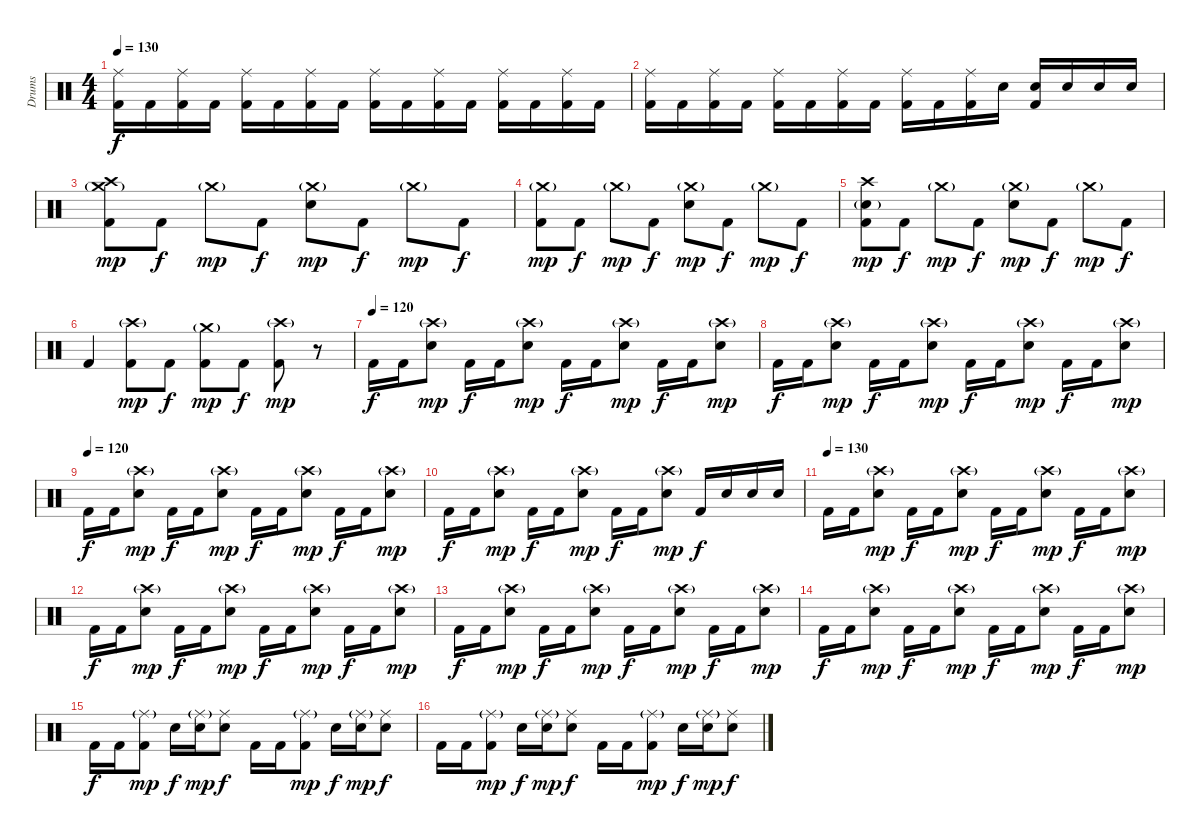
\track ("Drums" "Drums") {instrument percussion}
\staff {score}
\articulation defaults
\ts (4 4)
\tempo 130
\clef neutral
\ks c
("Ride (middle)" "Kick (hit) 2").16{dy f} "Kick (hit) 2".16 ("Ride (middle)" "Kick (hit) 2").16 "Kick (hit) 2".16 ("Ride (middle)" "Kick (hit) 2").16 "Kick (hit) 2".16 ("Ride (middle)" "Kick (hit) 2").16 "Kick (hit) 2".16 ("Ride (middle)" "Kick (hit) 2").16 "Kick (hit) 2".16 ("Ride (middle)" "Kick (hit) 2").16 "Kick (hit) 2".16 ("Ride (middle)" "Kick (hit) 2").16 "Kick (hit) 2".16 ("Ride (middle)" "Kick (hit) 2").16 "Kick (hit) 2".16 |
("Ride (middle)" "Kick (hit) 2").16 "Kick (hit) 2".16 ("Ride (middle)" "Kick (hit) 2").16 "Kick (hit) 2".16 ("Ride (middle)" "Kick (hit) 2").16 "Kick (hit) 2".16 ("Ride (middle)" "Kick (hit) 2").16 "Kick (hit) 2".16 ("Ride (middle)" "Kick (hit) 2").16 "Kick (hit) 2".16 ("Ride (middle)" "Kick (hit) 2").16 "Electric Snare (hit)".16 ("Kick (hit) 2" "Electric Snare (hit)").16 "Electric Snare (hit)".16 "Electric Snare (hit)".16 "Electric Snare (hit)".16 |
("Crash high (hit)" "Crash medium (hit)"{g} "Kick (hit) 2").8{dy mp} "Kick (hit) 2".8{dy f} "Crash medium (hit)"{g}.8{dy mp} "Kick (hit) 2".8{dy f} ("Crash medium (hit)"{g} "Electric Snare (hit)").8{dy mp} "Kick (hit) 2".8{dy f} "Crash medium (hit)"{g}.8{dy mp} "Kick (hit) 2".8{dy f} |
("Crash medium (hit)"{g} "Kick (hit) 2").8{dy mp} "Kick (hit) 2".8{dy f} "Crash medium (hit)"{g}.8{dy mp} "Kick (hit) 2".8{dy f} ("Crash medium (hit)"{g} "Electric Snare (hit)").8{dy mp} "Kick (hit) 2".8{dy f} "Crash medium (hit)"{g}.8{dy mp} "Kick (hit) 2".8{dy f} |
("Crash high (hit)" "Electric Snare (hit)"{g} "Kick (hit) 2").8{dy mp} "Kick (hit) 2".8{dy f} "Crash medium (hit)"{g}.8{dy mp} "Kick (hit) 2".8{dy f} ("Crash medium (hit)"{g} "Electric Snare (hit)").8{dy mp} "Kick (hit) 2".8{dy f} "Crash medium (hit)"{g}.8{dy mp} "Kick (hit) 2".8{dy f} |
"Kick (hit) 2".4 ("Crash high (hit)"{g} "Kick (hit) 2").8{dy mp} "Kick (hit) 2".8{dy f} ("Crash medium (hit)"{g} "Kick (hit) 2").8{dy mp} "Kick (hit) 2".8{dy f} ("Crash high (hit)"{g} "Kick (hit) 2").8{dy mp} r.8 |
\tempo (120)
"Kick (hit) 2".16{dy f} "Kick (hit) 2".16 ("Crash high (hit)"{g} "Electric Snare (hit)").8{dy mp} "Kick (hit) 2".16{dy f} "Kick (hit) 2".16 ("Crash high (hit)"{g} "Electric Snare (hit)").8{dy mp} "Kick (hit) 2".16{dy f} "Kick (hit) 2".16 ("Crash high (hit)"{g} "Electric Snare (hit)").8{dy mp} "Kick (hit) 2".16{dy f} "Kick (hit) 2".16 ("Crash high (hit)"{g} "Electric Snare (hit)").8{dy mp} |
"Kick (hit) 2".16{dy f} "Kick (hit) 2".16 ("Crash high (hit)"{g} "Electric Snare (hit)").8{dy mp} "Kick (hit) 2".16{dy f} "Kick (hit) 2".16 ("Crash high (hit)"{g} "Electric Snare (hit)").8{dy mp} "Kick (hit) 2".16{dy f} "Kick (hit) 2".16 ("Crash high (hit)"{g} "Electric Snare (hit)").8{dy mp} "Kick (hit) 2".16{dy f} "Kick (hit) 2".16 ("Crash high (hit)"{g} "Electric Snare (hit)").8{dy mp} |
\tempo (120)
"Kick (hit) 2".16{dy f} "Kick (hit) 2".16 ("Crash high (hit)"{g} "Electric Snare (hit)").8{dy mp} "Kick (hit) 2".16{dy f} "Kick (hit) 2".16 ("Crash high (hit)"{g} "Electric Snare (hit)").8{dy mp} "Kick (hit) 2".16{dy f} "Kick (hit) 2".16 ("Crash high (hit)"{g} "Electric Snare (hit)").8{dy mp} "Kick (hit) 2".16{dy f} "Kick (hit) 2".16 ("Crash high (hit)"{g} "Electric Snare (hit)").8{dy mp} |
"Kick (hit) 2".16{dy f} "Kick (hit) 2".16 ("Crash high (hit)"{g} "Electric Snare (hit)").8{dy mp} "Kick (hit) 2".16{dy f} "Kick (hit) 2".16 ("Crash high (hit)"{g} "Electric Snare (hit)").8{dy mp} "Kick (hit) 2".16{dy f} "Kick (hit) 2".16 ("Crash high (hit)"{g} "Electric Snare (hit)").8{dy mp} "Kick (hit) 2".16{dy f} "Electric Snare (hit)".16 "Electric Snare (hit)".16 "Electric Snare (hit)".16 |
\tempo (130)
"Kick (hit) 2".16 "Kick (hit) 2".16 ("Crash high (hit)"{g} "Electric Snare (hit)").8{dy mp} "Kick (hit) 2".16{dy f} "Kick (hit) 2".16 ("Crash high (hit)"{g} "Electric Snare (hit)").8{dy mp} "Kick (hit) 2".16{dy f} "Kick (hit) 2".16 ("Crash high (hit)"{g} "Electric Snare (hit)").8{dy mp} "Kick (hit) 2".16{dy f} "Kick (hit) 2".16 ("Crash high (hit)"{g} "Electric Snare (hit)").8{dy mp} |
"Kick (hit) 2".16{dy f} "Kick (hit) 2".16 ("Crash high (hit)"{g} "Electric Snare (hit)").8{dy mp} "Kick (hit) 2".16{dy f} "Kick (hit) 2".16 ("Crash high (hit)"{g} "Electric Snare (hit)").8{dy mp} "Kick (hit) 2".16{dy f} "Kick (hit) 2".16 ("Crash high (hit)"{g} "Electric Snare (hit)").8{dy mp} "Kick (hit) 2".16{dy f} "Kick (hit) 2".16 ("Crash high (hit)"{g} "Electric Snare (hit)").8{dy mp} |
"Kick (hit) 2".16{dy f} "Kick (hit) 2".16 ("Crash high (hit)"{g} "Electric Snare (hit)").8{dy mp} "Kick (hit) 2".16{dy f} "Kick (hit) 2".16 ("Crash high (hit)"{g} "Electric Snare (hit)").8{dy mp} "Kick (hit) 2".16{dy f} "Kick (hit) 2".16 ("Crash high (hit)"{g} "Electric Snare (hit)").8{dy mp} "Kick (hit) 2".16{dy f} "Kick (hit) 2".16 ("Crash high (hit)"{g} "Electric Snare (hit)").8{dy mp} |
"Kick (hit) 2".16{dy f} "Kick (hit) 2".16 ("Crash high (hit)"{g} "Electric Snare (hit)").8{dy mp} "Kick (hit) 2".16{dy f} "Kick (hit) 2".16 ("Crash high (hit)"{g} "Electric Snare (hit)").8{dy mp} "Kick (hit) 2".16{dy f} "Kick (hit) 2".16 ("Crash high (hit)"{g} "Electric Snare (hit)").8{dy mp} "Kick (hit) 2".16{dy f} "Kick (hit) 2".16 ("Crash high (hit)"{g} "Electric Snare (hit)").8{dy mp} |
"Kick (hit) 2".16{dy f} "Kick (hit) 2".16 ("Ride (middle)"{g} "Kick (hit) 2").8{dy mp} "Snare (hit) 2".16{dy f} ("Ride (middle)"{g} "Snare (hit) 2").16{dy mp} ("Ride (middle)" "Snare (hit) 2").8{dy f} "Kick (hit) 2".16 "Kick (hit) 2".16 ("Ride (middle)"{g} "Kick (hit) 2").8{dy mp} "Snare (hit) 2".16{dy f} ("Ride (middle)"{g} "Snare (hit) 2").16{dy mp} ("Ride (middle)" "Snare (hit) 2").8{dy f} |
"Kick (hit) 2".16 "Kick (hit) 2".16 ("Ride (middle)"{g} "Kick (hit) 2").8{dy mp} "Snare (hit) 2".16{dy f} ("Ride (middle)"{g} "Snare (hit) 2").16{dy mp} ("Ride (middle)" "Snare (hit) 2").8{dy f} "Kick (hit) 2".16 "Kick (hit) 2".16 ("Ride (middle)"{g} "Kick (hit) 2").8{dy mp} "Snare (hit) 2".16{dy f} ("Ride (middle)"{g} "Snare (hit) 2").16{dy mp} ("Ride (middle)" "Snare (hit) 2").8{dy f}
